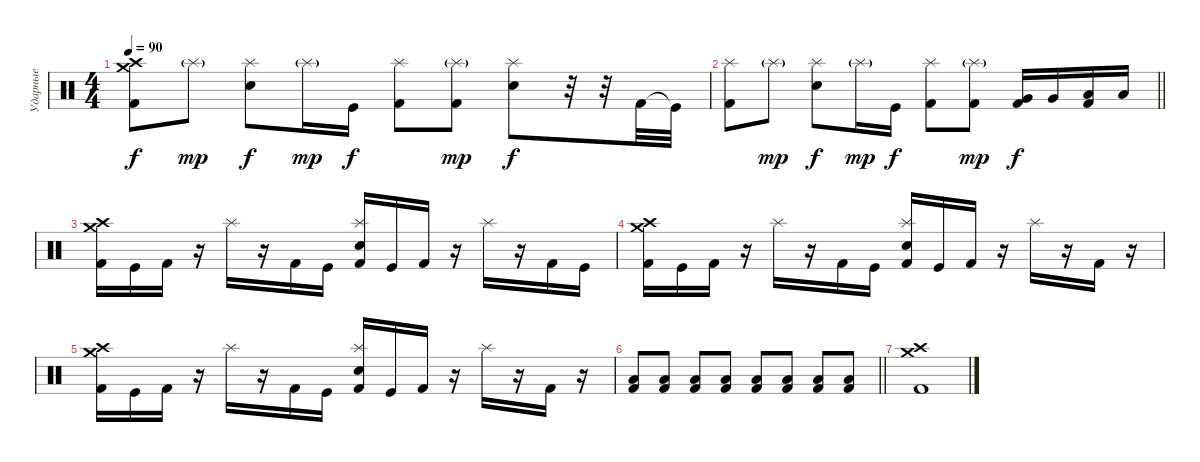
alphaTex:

\track ("Ударные" "Ударные") {instrument percussion}
\staff {score}
\articulation defaults
\ts (4 4)
\tempo 90
\clef neutral
\ks c
("Crash medium (hit)" "Crash high (hit)" "Kick (hit) 2").8{dy f} "Splash (hit)"{g}.8{dy mp} ("Splash (hit)" "Electric Snare (hit)").8{dy f} "Splash (hit)"{g}.16{dy mp} "Kick (hit)".16{dy f} ("Splash (hit)" "Kick (hit) 2").8 ("Splash (hit)"{g} "Kick (hit) 2").8{dy mp} ("Splash (hit)" "Electric Snare (hit)").8{dy f} r.32 r.32 "Kick (hit) 2".32 "Kick (hit)"{t}.32 |
\barLineRight lightlight
("Splash (hit)" "Kick (hit) 2").8 "Splash (hit)"{g}.8{dy mp} ("Splash (hit)" "Electric Snare (hit)").8{dy f} "Splash (hit)"{g}.16{dy mp} "Kick (hit)".16{dy f} ("Splash (hit)" "Kick (hit) 2").8 ("Splash (hit)"{g} "Kick (hit) 2").8{dy mp} ("Very Low Tom (hit)" "Kick (hit) 2").16{dy f} "Very Low Tom (hit)".16 ("Low Floor Tom (hit)" "Kick (hit) 2").16 "Low Floor Tom (hit)".16 |
("Crash high (hit)" "Crash medium (hit)" "Kick (hit) 2").16 "Kick (hit)".16 "Kick (hit) 2".16 r.16 "Splash (hit)".16 r.16 "Kick (hit) 2".16 "Kick (hit)".16 ("Splash (hit)" "Electric Snare (hit)" "Kick (hit) 2").16 "Kick (hit)".16 "Kick (hit) 2".16 r.16 "Splash (hit)".16 r.16 "Kick (hit) 2".16 "Kick (hit)".16 |
("Crash high (hit)" "Crash medium (hit)" "Kick (hit) 2").16 "Kick (hit)".16 "Kick (hit) 2".16 r.16 "Splash (hit)".16 r.16 "Kick (hit) 2".16 "Kick (hit)".16 ("Splash (hit)" "Electric Snare (hit)" "Kick (hit) 2").16 "Kick (hit)".16 "Kick (hit) 2".16 r.16 "Splash (hit)".16 r.16 "Kick (hit) 2".16 r.16 |
("Crash high (hit)" "Crash medium (hit)" "Kick (hit) 2").16 "Kick (hit)".16 "Kick (hit) 2".16 r.16 "Splash (hit)".16 r.16 "Kick (hit) 2".16 "Kick (hit)".16 ("Splash (hit)" "Electric Snare (hit)" "Kick (hit) 2").16 "Kick (hit)".16 "Kick (hit) 2".16 r.16 "Splash (hit)".16 r.16 "Kick (hit) 2".16 r.16 |
\barLineRight lightlight
("Low Floor Tom (hit)" "Kick (hit) 2").8 ("Low Floor Tom (hit)" "Kick (hit) 2").8 ("Low Floor Tom (hit)" "Kick (hit) 2").8 ("Low Floor Tom (hit)" "Kick (hit) 2").8 ("Low Floor Tom (hit)" "Kick (hit) 2").8 ("Low Floor Tom (hit)" "Kick (hit) 2").8 ("Low Floor Tom (hit)" "Kick (hit) 2").8 ("Low Floor Tom (hit)" "Kick (hit) 2").8 |
("Crash medium (hit)" "Crash high (hit)" "Kick (hit) 2").1
